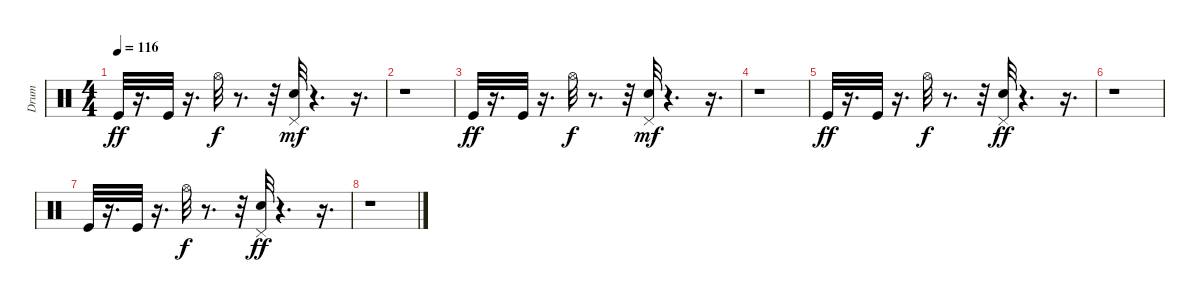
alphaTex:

\track ("Drum    " "Drum    ") {instrument percussion}
\staff {score}
\articulation defaults
\ts (4 4)
\tempo 116
\clef neutral
\ks c "Kick (hit)".32{dy ff}
r.16{d} "Kick (hit)".32 r.16{d} "Hi-Hat (open)".32{dy f} r.8{d} r.32 ("Pedal Hi-Hat (hit)" "Electric Snare (hit)").32{dy mf} r.4{d} r.16{d} |
r.1 |
"Kick (hit)".32{dy ff} r.16{d} "Kick (hit)".32 r.16{d} "Hi-Hat (open)".32{dy f} r.8{d} r.32 ("Pedal Hi-Hat (hit)" "Electric Snare (hit)").32{dy mf} r.4{d} r.16{d} |
r.1 |
"Kick (hit)".32{dy ff} r.16{d} "Kick (hit)".32 r.16{d} "Hi-Hat (open)".32{dy f} r.8{d} r.32 ("Electric Snare (hit)" "Pedal Hi-Hat (hit)").32{dy ff} r.4{d} r.16{d} |
r.1 |
"Kick (hit)".32 r.16{d} "Kick (hit)".32 r.16{d} "Hi-Hat (open)".32{dy f} r.8{d} r.32 ("Electric Snare (hit)" "Pedal Hi-Hat (hit)").32{dy ff} r.4{d} r.16{d} |
r.1
